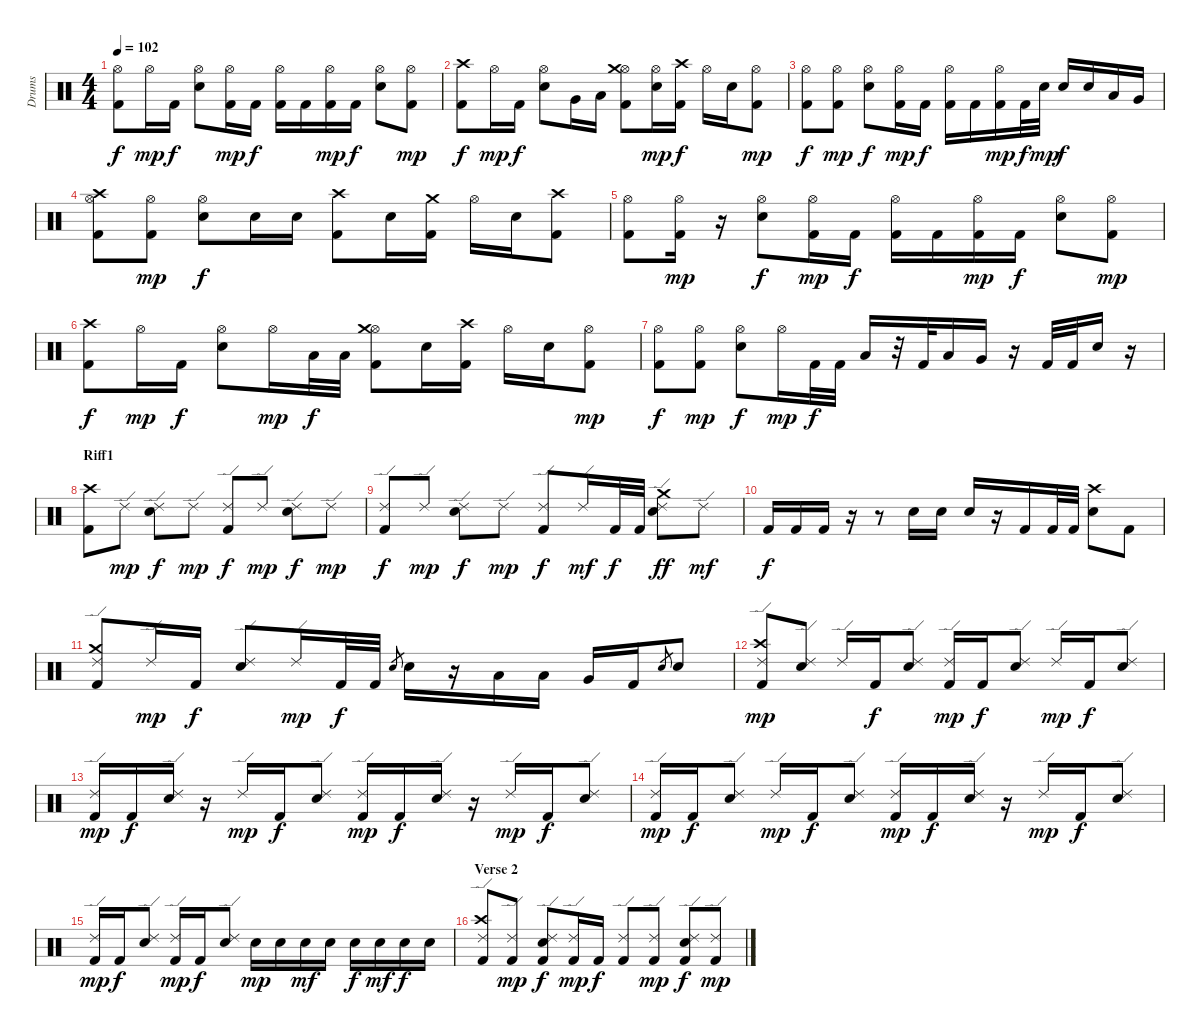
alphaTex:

\track ("Drums" "Drums") {instrument percussion}
\staff {score}
\articulation defaults
\ts (4 4)
\tempo 102
\clef neutral
\ks c
("Kick (hit) 2" "Hi-Hat (open)").8{dy f} "Hi-Hat (open)".16{dy mp} "Kick (hit) 2".16{dy f} ("Electric Snare (hit)" "Hi-Hat (open)").8 ("Kick (hit) 2" "Hi-Hat (open)").16{dy mp} "Kick (hit) 2".16{dy f} ("Kick (hit) 2" "Hi-Hat (open)").16 "Kick (hit) 2".16 ("Kick (hit) 2" "Hi-Hat (open)").16{dy mp} "Kick (hit) 2".16{dy f} ("Electric Snare (hit)" "Hi-Hat (open)").8 ("Kick (hit) 2" "Hi-Hat (open)").8{dy mp} |
("Kick (hit) 2" "Crash high (hit)").8{dy f} "Hi-Hat (open)".16{dy mp} "Kick (hit) 2".16{dy f} ("Electric Snare (hit)" "Hi-Hat (open)").8 "Very Low Tom (hit)".16 "Low Floor Tom (hit)".16 ("Kick (hit) 2" "Hi-Hat (open)" "Crash medium (hit)").8 ("Electric Snare (hit)" "Hi-Hat (open)").16{dy mp} ("Kick (hit) 2" "Crash high (hit)").16{dy f} "Hi-Hat (open)".16 "Electric Snare (hit)".16 ("Kick (hit) 2" "Hi-Hat (open)").8{dy mp} |
("Kick (hit) 2" "Hi-Hat (open)").8{dy f} ("Kick (hit) 2" "Hi-Hat (open)").8{dy mp} ("Electric Snare (hit)" "Hi-Hat (open)").8{dy f} ("Kick (hit) 2" "Hi-Hat (open)").16{dy mp} "Kick (hit) 2".16{dy f} ("Kick (hit) 2" "Hi-Hat (open)").16 "Kick (hit) 2".16 ("Kick (hit) 2" "Hi-Hat (open)").16{dy mp} "Kick (hit) 2".32{dy f} "Electric Snare (hit)".32{dy mp} "Electric Snare (hit)".16{dy f} "Electric Snare (hit)".16 "Low Tom (hit)".16 "Very Low Tom (hit)".16 |
("Kick (hit) 2" "Hi-Hat (open)" "Crash high (hit)").8 ("Kick (hit) 2" "Hi-Hat (open)").8{dy mp} ("Electric Snare (hit)" "Hi-Hat (open)").8{dy f} "Electric Snare (hit)".16 "Electric Snare (hit)".16 ("Kick (hit) 2" "Crash high (hit)").8 "Electric Snare (hit)".16 ("Kick (hit) 2" "Crash medium (hit)").16 "Hi-Hat (open)".16 "Electric Snare (hit)".16 ("Kick (hit) 2" "Crash high (hit)").8 |
("Kick (hit) 2" "Hi-Hat (open)").8 ("Kick (hit) 2" "Hi-Hat (open)").16{dy mp} r.16 ("Electric Snare (hit)" "Hi-Hat (open)").8{dy f} ("Kick (hit) 2" "Hi-Hat (open)").16{dy mp} "Kick (hit) 2".16{dy f} ("Kick (hit) 2" "Hi-Hat (open)").16 "Kick (hit) 2".16 ("Kick (hit) 2" "Hi-Hat (open)").16{dy mp} "Kick (hit) 2".16{dy f} ("Electric Snare (hit)" "Hi-Hat (open)").8 ("Kick (hit) 2" "Hi-Hat (open)").8{dy mp} |
("Kick (hit) 2" "Crash high (hit)").8{dy f} "Hi-Hat (open)".16{dy mp} "Kick (hit) 2".16{dy f} ("Electric Snare (hit)" "Hi-Hat (open)").8 "Hi-Hat (open)".16{dy mp} "Low Floor Tom (hit)".32{dy f} "Low Floor Tom (hit)".32 ("Kick (hit) 2" "Hi-Hat (open)" "Crash medium (hit)").8 "Electric Snare (hit)".16 ("Kick (hit) 2" "Crash high (hit)").16 "Hi-Hat (open)".16 "Electric Snare (hit)".16 ("Kick (hit) 2" "Hi-Hat (open)").8{dy mp} |
("Kick (hit) 2" "Hi-Hat (open)").8{dy f} ("Kick (hit) 2" "Hi-Hat (open)").8{dy mp} ("Electric Snare (hit)" "Hi-Hat (open)").8{dy f} "Hi-Hat (open)".16{dy mp} "Kick (hit) 2".32{dy f} "Kick (hit) 2".32 "Low Tom (hit)".16 r.32 "Kick (hit) 2".32 "Low Tom (hit)".16 "Very Low Tom (hit)".16 r.16 "Kick (hit) 2".32 "Kick (hit) 2".32 "Electric Snare (hit)".16 r.16 |
\section ("" "Riff1")
("Kick (hit) 2" "Crash high (hit)").8 "Ride (edge) 2".8{dy mp} ("Ride (edge) 2" "Electric Snare (hit)").8{dy f} "Ride (edge) 2".8{dy mp} ("Kick (hit) 2" "Ride (edge) 2").8{dy f} "Ride (edge) 2".8{dy mp} ("Ride (edge) 2" "Electric Snare (hit)").8{dy f} "Ride (edge) 2".8{dy mp} |
("Kick (hit) 2" "Ride (edge) 2").8{dy f} "Ride (edge) 2".8{dy mp} ("Ride (edge) 2" "Electric Snare (hit)").8{dy f} "Ride (edge) 2".8{dy mp} ("Kick (hit) 2" "Ride (edge) 2").8{dy f} "Ride (edge) 2".16{dy mf} "Kick (hit) 2".32{dy f} "Kick (hit) 2".32 ("Ride (edge) 2" "Electric Snare (hit)" "Crash medium (hit)").8{dy ff} "Ride (edge) 2".8{dy mf} |
"Kick (hit) 2".16{dy f} "Kick (hit) 2".16 "Kick (hit) 2".16 r.16 r.8 "Electric Snare (hit)".16 "Electric Snare (hit)".16 "Electric Snare (hit)".16 r.16 "Kick (hit) 2".16 "Kick (hit) 2".32 "Kick (hit) 2".32 ("Electric Snare (hit)" "Crash high (hit)").8 "Kick (hit) 2".8 |
("Kick (hit) 2" "Ride (edge) 2" "Crash medium (hit)").8 "Ride (edge) 2".16{dy mp} "Kick (hit) 2".16{dy f} ("Ride (edge) 2" "Electric Snare (hit)").8 "Ride (edge) 2".16{dy mp} "Kick (hit) 2".32{dy f} "Kick (hit) 2".32 "Electric Snare (hit)".8{gr} "Electric Snare (hit)".16 r.16 "Low Tom (hit)".16 "Low Floor Tom (hit)".16 "Very Low Tom (hit)".16 "Kick (hit) 2".16 "Electric Snare (hit)".8{gr} "Electric Snare (hit)".8 |
("Kick (hit) 2" "Ride (edge) 2" "Crash high (hit)").8{dy mp} ("Ride (edge) 2" "Electric Snare (hit)").8 "Ride (edge) 2".16 "Kick (hit) 2".16{dy f} ("Ride (edge) 2" "Electric Snare (hit)").8 ("Kick (hit) 2" "Ride (edge) 2").16{dy mp} "Kick (hit) 2".16{dy f} ("Ride (edge) 2" "Electric Snare (hit)").8 "Ride (edge) 2".16{dy mp} "Kick (hit) 2".16{dy f} ("Ride (edge) 2" "Electric Snare (hit)").8 |
("Kick (hit) 2" "Ride (edge) 2").16{dy mp} "Kick (hit) 2".16{dy f} ("Ride (edge) 2" "Electric Snare (hit)").16 r.16 "Ride (edge) 2".16{dy mp} "Kick (hit) 2".16{dy f} ("Ride (edge) 2" "Electric Snare (hit)").8 ("Kick (hit) 2" "Ride (edge) 2").16{dy mp} "Kick (hit) 2".16{dy f} ("Ride (edge) 2" "Electric Snare (hit)").16 r.16 "Ride (edge) 2".16{dy mp} "Kick (hit) 2".16{dy f} ("Ride (edge) 2" "Electric Snare (hit)").8 |
("Kick (hit) 2" "Ride (edge) 2").16{dy mp} "Kick (hit) 2".16{dy f} ("Ride (edge) 2" "Electric Snare (hit)").8 "Ride (edge) 2".16{dy mp} "Kick (hit) 2".16{dy f} ("Ride (edge) 2" "Electric Snare (hit)").8 ("Kick (hit) 2" "Ride (edge) 2").16{dy mp} "Kick (hit) 2".16{dy f} ("Ride (edge) 2" "Electric Snare (hit)").16 r.16 "Ride (edge) 2".16{dy mp} "Kick (hit) 2".16{dy f} ("Ride (edge) 2" "Electric Snare (hit)").8 |
("Kick (hit) 2" "Ride (edge) 2").16{dy mp} "Kick (hit) 2".16{dy f} ("Ride (edge) 2" "Electric Snare (hit)").8 ("Kick (hit) 2" "Ride (edge) 2").16{dy mp} "Kick (hit) 2".16{dy f} ("Ride (edge) 2" "Electric Snare (hit)").8 "Electric Snare (hit)".16{dy mp} "Electric Snare (hit)".16 "Electric Snare (hit)".16{dy mf} "Electric Snare (hit)".16 "Electric Snare (hit)".16{dy f} "Electric Snare (hit)".16{dy mf} "Electric Snare (hit)".16{dy f} "Electric Snare (hit)".16 |
\section ("" "Verse 2")
("Kick (hit) 2" "Ride (edge) 2" "Crash high (hit)").8 ("Kick (hit) 2" "Ride (edge) 2").8{dy mp} ("Kick (hit) 2" "Ride (edge) 2" "Electric Snare (hit)").8{dy f} ("Kick (hit) 2" "Ride (edge) 2").16{dy mp} "Kick (hit) 2".16{dy f} ("Kick (hit) 2" "Ride (edge) 2").8 ("Kick (hit) 2" "Ride (edge) 2").8{dy mp} ("Kick (hit) 2" "Ride (edge) 2" "Electric Snare (hit)").8{dy f} ("Kick (hit) 2" "Ride (edge) 2").8{dy mp}
